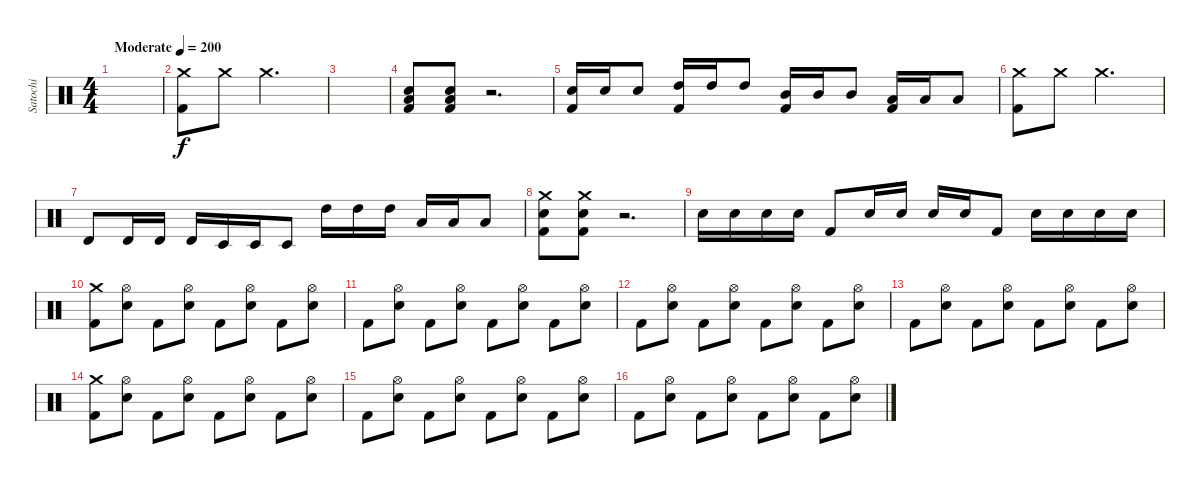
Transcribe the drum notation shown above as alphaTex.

\track ("Satochi" "Satochi") {instrument percussion}
\staff {score}
\articulation defaults
\ts (4 4)
\tempo (200 "Moderate")
\clef neutral
\ks c
|
("Crash medium (hit)" "Kick (hit) 2").8 "Crash medium (hit)".8 "Crash medium (hit)".2{d} |
|
("Low Tom (hit)" "Electric Snare (hit)" "Kick (hit) 2").8 ("Low Tom (hit)" "Electric Snare (hit)" "Kick (hit) 2").8 r.2{d} |
("Electric Snare (hit)" "Kick (hit) 2").16 "Electric Snare (hit)".16 "Electric Snare (hit)".8 ("High Tom (hit)" "Kick (hit) 2").16 "High Tom (hit)".16 "High Tom (hit)".8 ("Mid Tom (hit)" "Kick (hit) 2").16 "Mid Tom (hit)".16 "Mid Tom (hit)".8 ("Low Tom (hit)" "Kick (hit) 2").16 "Low Tom (hit)".16 "Low Tom (hit)".8 |
("Crash medium (hit)" "Kick (hit) 2").8 "Crash medium (hit)".8 "Crash medium (hit)".2{d} |
"Timbale high (hit)".8 "Timbale high (hit)".16 "Timbale high (hit)".16 "Timbale high (hit)".16 "Timbale low (hit)".16 "Timbale low (hit)".16 "Timbale low (hit)".8 "High Tom (hit)".16 "High Tom (hit)".16 "High Tom (hit)".16 "Low Tom (hit)".16 "Low Tom (hit)".16 "Low Tom (hit)".8 |
("Crash medium (hit)" "Electric Snare (hit)" "Kick (hit) 2").8 ("Crash medium (hit)" "Electric Snare (hit)" "Kick (hit) 2").8 r.2{d} |
"Electric Snare (hit)".16 "Electric Snare (hit)".16 "Electric Snare (hit)".16 "Electric Snare (hit)".16 "Kick (hit) 2".8 "Electric Snare (hit)".16 "Electric Snare (hit)".16 "Electric Snare (hit)".16 "Electric Snare (hit)".16 "Kick (hit) 2".8 "Electric Snare (hit)".16 "Electric Snare (hit)".16 "Electric Snare (hit)".16 "Electric Snare (hit)".16 |
("Crash medium (hit)" "Kick (hit) 2").8 ("Hi-Hat (open)" "Electric Snare (hit)").8 "Kick (hit) 2".8 ("Hi-Hat (open)" "Electric Snare (hit)").8 "Kick (hit) 2".8 ("Hi-Hat (open)" "Electric Snare (hit)").8 "Kick (hit) 2".8 ("Hi-Hat (open)" "Electric Snare (hit)").8 |
"Kick (hit) 2".8 ("Hi-Hat (open)" "Electric Snare (hit)").8 "Kick (hit) 2".8 ("Hi-Hat (open)" "Electric Snare (hit)").8 "Kick (hit) 2".8 ("Hi-Hat (open)" "Electric Snare (hit)").8 "Kick (hit) 2".8 ("Hi-Hat (open)" "Electric Snare (hit)").8 |
"Kick (hit) 2".8 ("Hi-Hat (open)" "Electric Snare (hit)").8 "Kick (hit) 2".8 ("Hi-Hat (open)" "Electric Snare (hit)").8 "Kick (hit) 2".8 ("Hi-Hat (open)" "Electric Snare (hit)").8 "Kick (hit) 2".8 ("Hi-Hat (open)" "Electric Snare (hit)").8 |
"Kick (hit) 2".8 ("Hi-Hat (open)" "Electric Snare (hit)").8 "Kick (hit) 2".8 ("Hi-Hat (open)" "Electric Snare (hit)").8 "Kick (hit) 2".8 ("Hi-Hat (open)" "Electric Snare (hit)").8 "Kick (hit) 2".8 ("Hi-Hat (open)" "Electric Snare (hit)").8 |
("Crash medium (hit)" "Kick (hit) 2").8 ("Hi-Hat (open)" "Electric Snare (hit)").8 "Kick (hit) 2".8 ("Hi-Hat (open)" "Electric Snare (hit)").8 "Kick (hit) 2".8 ("Hi-Hat (open)" "Electric Snare (hit)").8 "Kick (hit) 2".8 ("Hi-Hat (open)" "Electric Snare (hit)").8 |
"Kick (hit) 2".8 ("Hi-Hat (open)" "Electric Snare (hit)").8 "Kick (hit) 2".8 ("Hi-Hat (open)" "Electric Snare (hit)").8 "Kick (hit) 2".8 ("Hi-Hat (open)" "Electric Snare (hit)").8 "Kick (hit) 2".8 ("Hi-Hat (open)" "Electric Snare (hit)").8 |
"Kick (hit) 2".8 ("Hi-Hat (open)" "Electric Snare (hit)").8 "Kick (hit) 2".8 ("Hi-Hat (open)" "Electric Snare (hit)").8 "Kick (hit) 2".8 ("Hi-Hat (open)" "Electric Snare (hit)").8 "Kick (hit) 2".8 ("Hi-Hat (open)" "Electric Snare (hit)").8
